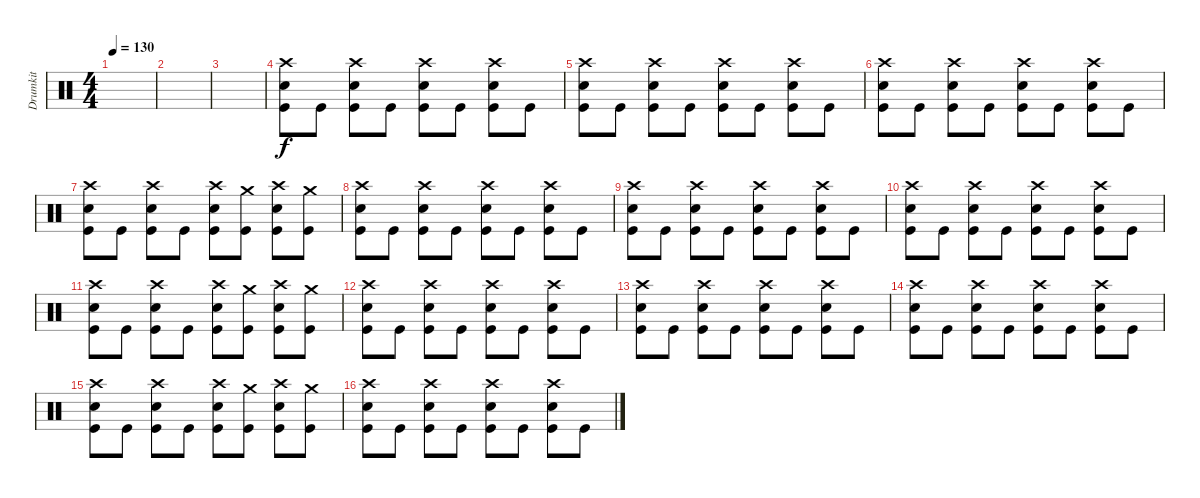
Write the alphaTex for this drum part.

\track ("Drumkit" "Drumkit") {instrument percussion}
\staff {score}
\articulation defaults
\ts (4 4)
\tempo 130
\clef neutral
\ks c
|
|
|
("Kick (hit)" "Snare (hit) 2" "Crash high (hit)").8 "Kick (hit)".8 ("Kick (hit)" "Snare (hit) 2" "Crash high (hit)").8 "Kick (hit)".8 ("Kick (hit)" "Snare (hit) 2" "Crash high (hit)").8 "Kick (hit)".8 ("Kick (hit)" "Snare (hit) 2" "Crash high (hit)").8 "Kick (hit)".8 |
("Kick (hit)" "Snare (hit) 2" "Crash high (hit)").8 "Kick (hit)".8 ("Kick (hit)" "Snare (hit) 2" "Crash high (hit)").8 "Kick (hit)".8 ("Kick (hit)" "Snare (hit) 2" "Crash high (hit)").8 "Kick (hit)".8 ("Kick (hit)" "Snare (hit) 2" "Crash high (hit)").8 "Kick (hit)".8 |
("Kick (hit)" "Snare (hit) 2" "Crash high (hit)").8 "Kick (hit)".8 ("Kick (hit)" "Snare (hit) 2" "Crash high (hit)").8 "Kick (hit)".8 ("Kick (hit)" "Snare (hit) 2" "Crash high (hit)").8 "Kick (hit)".8 ("Kick (hit)" "Snare (hit) 2" "Crash high (hit)").8 "Kick (hit)".8 |
("Kick (hit)" "Snare (hit) 2" "Crash high (hit)").8 "Kick (hit)".8 ("Kick (hit)" "Snare (hit) 2" "Crash high (hit)").8 "Kick (hit)".8 ("Kick (hit)" "Snare (hit) 2" "Crash high (hit)").8 ("Kick (hit)" "Crash medium (hit)").8 ("Kick (hit)" "Snare (hit) 2" "Crash high (hit)").8 ("Kick (hit)" "Crash medium (hit)").8 |
("Kick (hit)" "Snare (hit) 2" "Crash high (hit)").8 "Kick (hit)".8 ("Kick (hit)" "Snare (hit) 2" "Crash high (hit)").8 "Kick (hit)".8 ("Kick (hit)" "Snare (hit) 2" "Crash high (hit)").8 "Kick (hit)".8 ("Kick (hit)" "Snare (hit) 2" "Crash high (hit)").8 "Kick (hit)".8 |
("Kick (hit)" "Snare (hit) 2" "Crash high (hit)").8 "Kick (hit)".8 ("Kick (hit)" "Snare (hit) 2" "Crash high (hit)").8 "Kick (hit)".8 ("Kick (hit)" "Snare (hit) 2" "Crash high (hit)").8 "Kick (hit)".8 ("Kick (hit)" "Snare (hit) 2" "Crash high (hit)").8 "Kick (hit)".8 |
("Kick (hit)" "Snare (hit) 2" "Crash high (hit)").8 "Kick (hit)".8 ("Kick (hit)" "Snare (hit) 2" "Crash high (hit)").8 "Kick (hit)".8 ("Kick (hit)" "Snare (hit) 2" "Crash high (hit)").8 "Kick (hit)".8 ("Kick (hit)" "Snare (hit) 2" "Crash high (hit)").8 "Kick (hit)".8 |
("Kick (hit)" "Snare (hit) 2" "Crash high (hit)").8 "Kick (hit)".8 ("Kick (hit)" "Snare (hit) 2" "Crash high (hit)").8 "Kick (hit)".8 ("Kick (hit)" "Snare (hit) 2" "Crash high (hit)").8 ("Kick (hit)" "Crash medium (hit)").8 ("Kick (hit)" "Snare (hit) 2" "Crash high (hit)").8 ("Kick (hit)" "Crash medium (hit)").8 |
("Kick (hit)" "Snare (hit) 2" "Crash high (hit)").8 "Kick (hit)".8 ("Kick (hit)" "Snare (hit) 2" "Crash high (hit)").8 "Kick (hit)".8 ("Kick (hit)" "Snare (hit) 2" "Crash high (hit)").8 "Kick (hit)".8 ("Kick (hit)" "Snare (hit) 2" "Crash high (hit)").8 "Kick (hit)".8 |
("Kick (hit)" "Snare (hit) 2" "Crash high (hit)").8 "Kick (hit)".8 ("Kick (hit)" "Snare (hit) 2" "Crash high (hit)").8 "Kick (hit)".8 ("Kick (hit)" "Snare (hit) 2" "Crash high (hit)").8 "Kick (hit)".8 ("Kick (hit)" "Snare (hit) 2" "Crash high (hit)").8 "Kick (hit)".8 |
("Kick (hit)" "Snare (hit) 2" "Crash high (hit)").8 "Kick (hit)".8 ("Kick (hit)" "Snare (hit) 2" "Crash high (hit)").8 "Kick (hit)".8 ("Kick (hit)" "Snare (hit) 2" "Crash high (hit)").8 "Kick (hit)".8 ("Kick (hit)" "Snare (hit) 2" "Crash high (hit)").8 "Kick (hit)".8 |
("Kick (hit)" "Snare (hit) 2" "Crash high (hit)").8 "Kick (hit)".8 ("Kick (hit)" "Snare (hit) 2" "Crash high (hit)").8 "Kick (hit)".8 ("Kick (hit)" "Snare (hit) 2" "Crash high (hit)").8 ("Kick (hit)" "Crash medium (hit)").8 ("Kick (hit)" "Snare (hit) 2" "Crash high (hit)").8 ("Kick (hit)" "Crash medium (hit)").8 |
("Kick (hit)" "Snare (hit) 2" "Crash high (hit)").8 "Kick (hit)".8 ("Kick (hit)" "Snare (hit) 2" "Crash high (hit)").8 "Kick (hit)".8 ("Kick (hit)" "Snare (hit) 2" "Crash high (hit)").8 "Kick (hit)".8 ("Kick (hit)" "Snare (hit) 2" "Crash high (hit)").8 "Kick (hit)".8
